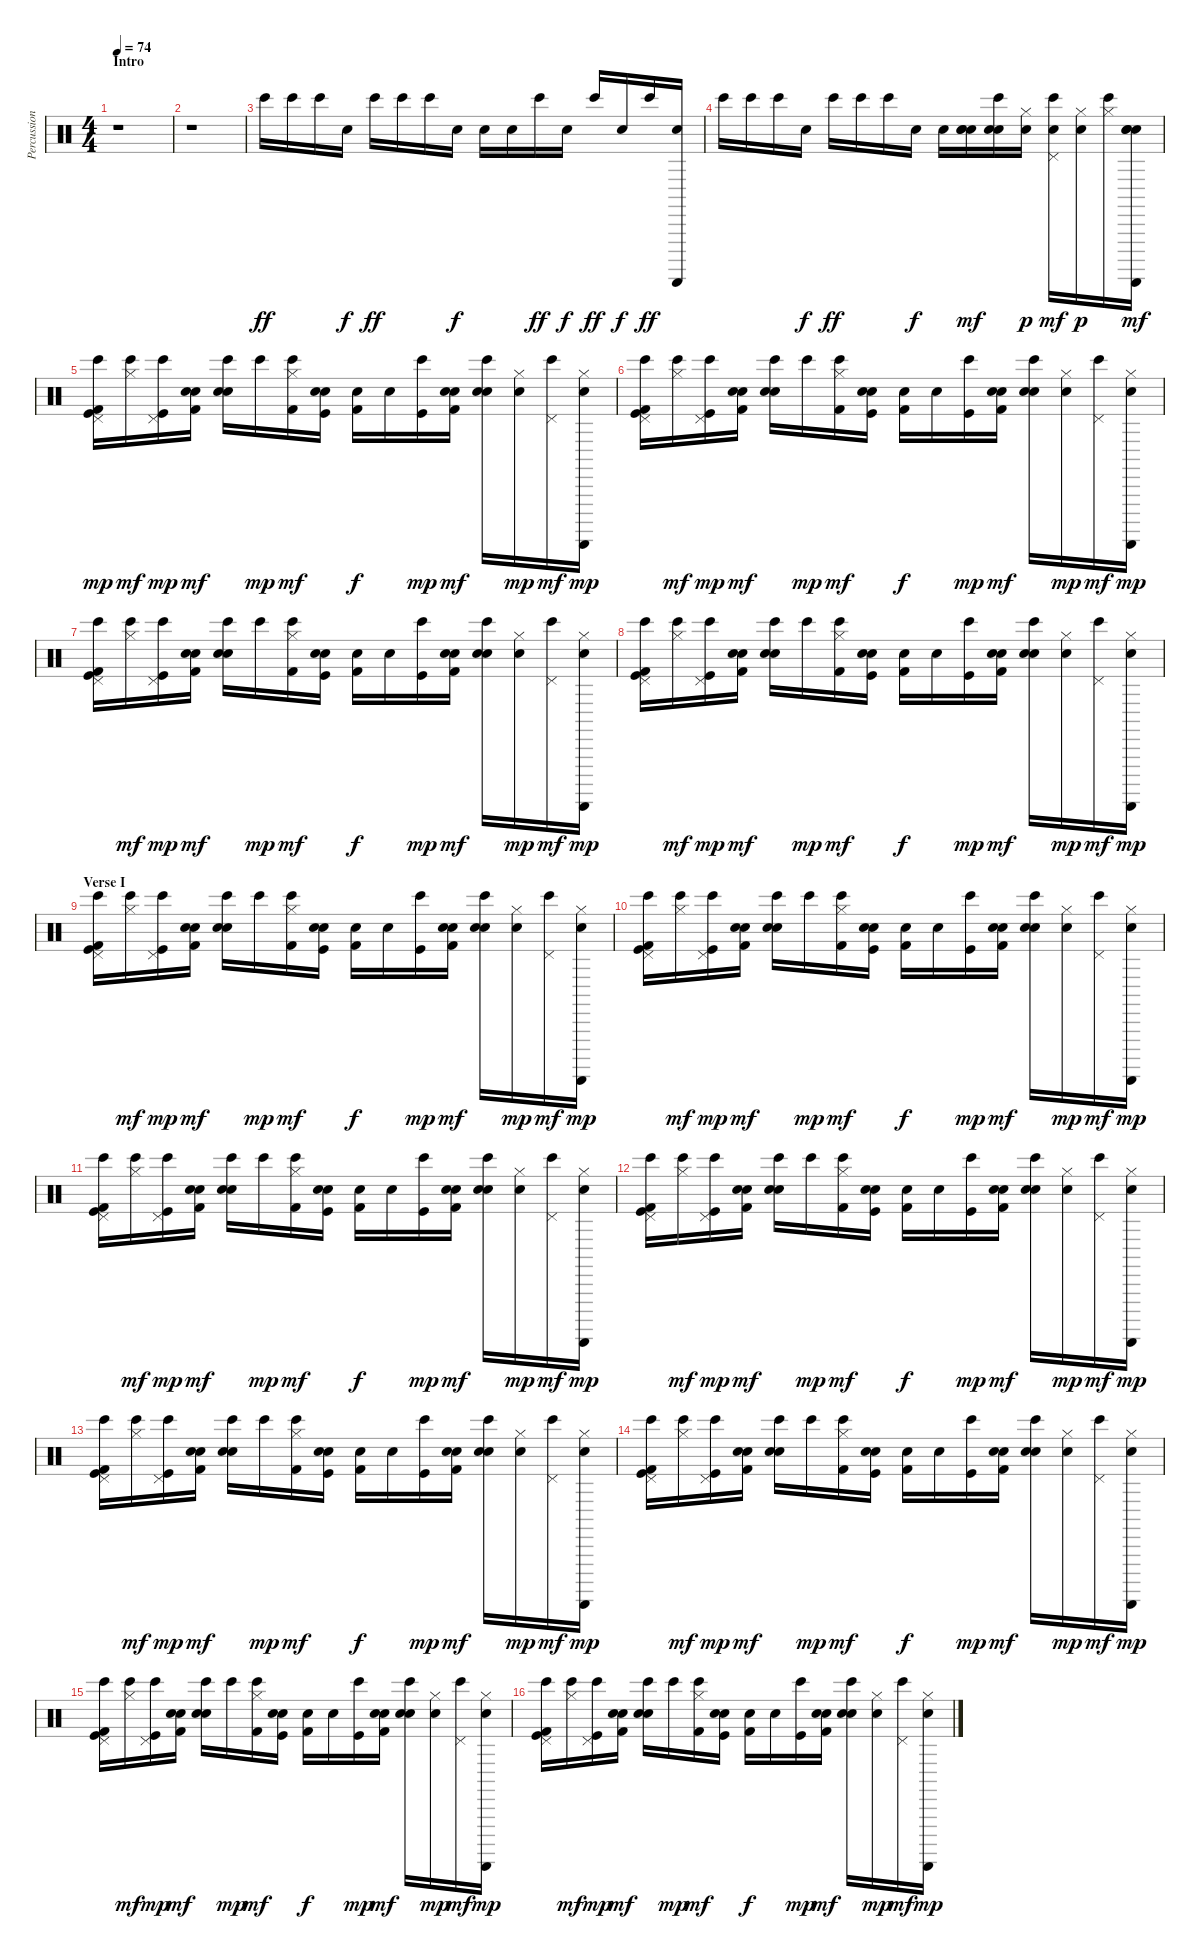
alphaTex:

\track ("Percussion" "Percussion") {instrument percussion}
\staff {score}
\articulation defaults
\ts (4 4)
\section ("" "Intro")
\tempo 74
\clef neutral
\ks c
r.1{dy ff} |
r.1 |
"Bongo High (hit)".16 "Bongo High (hit)".16 "Bongo High (hit)".16 "Snare (hit)".16{dy f} "Bongo High (hit)".16{dy ff} "Bongo High (hit)".16 "Bongo High (hit)".16 "Snare (hit)".16{dy f} "Snare (hit)".16 "Snare (hit)".16 "Bongo High (hit)".16{dy ff} "Snare (hit)".16{dy f} "Bongo High (hit)".16{dy ff} "Snare (hit)".16{dy f} "Bongo High (hit)".16{dy ff} ("Snare (hit)" "Guiro (scrap-return)").16 |
"Bongo High (hit)".16 "Bongo High (hit)".16 "Bongo High (hit)".16 "Snare (hit)".16{dy f} "Bongo High (hit)".16{dy ff} "Bongo High (hit)".16 "Bongo High (hit)".16 "Snare (hit)".16{dy f} "Snare (hit)".16 ("Snare (hit)" "Electric Snare (hit)" "Snare (hit) 2").16{dy mf} ("Bongo High (hit)" "Electric Snare (hit)" "Snare (hit) 2").16 ("Snare (hit)" "Hi-Hat (closed)").16{dy p} ("Bongo High (hit)" "Electric Snare (hit)" "Pedal Hi-Hat (hit)").16{dy mf} ("Snare (hit)" "Hi-Hat (closed)").16{dy p} ("Bongo High (hit)" "Hi-Hat (closed)").16 ("Snare (hit)" "Guiro (scrap-return)" "Electric Snare (hit)" "Snare (hit) 2").16{dy mf} |
("Bongo High (hit)" "Pedal Hi-Hat (hit)" "Kick (hit) 2" "Kick (hit)").16{dy mp} ("Bongo High (hit)" "Hi-Hat (closed)").16{dy mf} ("Bongo High (hit)" "Pedal Hi-Hat (hit)" "Kick (hit)").16{dy mp} ("Snare (hit)" "Electric Snare (hit)" "Kick (hit) 2").16{dy mf} ("Bongo High (hit)" "Electric Snare (hit)" "Snare (hit) 2").16 "Bongo High (hit)".16{dy mp} ("Bongo High (hit)" "Hi-Hat (closed)" "Kick (hit) 2").16{dy mf} ("Snare (hit)" "Electric Snare (hit)" "Kick (hit)").16 ("Snare (hit)" "Kick (hit) 2").16{dy f} "Snare (hit)".16 ("Bongo High (hit)" "Kick (hit)").16{dy mp} ("Snare (hit)" "Electric Snare (hit)" "Kick (hit) 2").16{dy mf} ("Bongo High (hit)" "Electric Snare (hit)" "Snare (hit) 2").16 ("Snare (hit)" "Hi-Hat (closed)").16{dy mp} ("Bongo High (hit)" "Pedal Hi-Hat (hit)").16{dy mf} ("Snare (hit)" "Guiro (scrap-return)" "Hi-Hat (closed)").16{dy mp} |
("Bongo High (hit)" "Pedal Hi-Hat (hit)" "Kick (hit) 2" "Kick (hit)").16 ("Bongo High (hit)" "Hi-Hat (closed)").16{dy mf} ("Bongo High (hit)" "Pedal Hi-Hat (hit)" "Kick (hit)").16{dy mp} ("Snare (hit)" "Electric Snare (hit)" "Kick (hit) 2").16{dy mf} ("Bongo High (hit)" "Electric Snare (hit)" "Snare (hit) 2").16 "Bongo High (hit)".16{dy mp} ("Bongo High (hit)" "Hi-Hat (closed)" "Kick (hit) 2").16{dy mf} ("Snare (hit)" "Electric Snare (hit)" "Kick (hit)").16 ("Snare (hit)" "Kick (hit) 2").16{dy f} "Snare (hit)".16 ("Bongo High (hit)" "Kick (hit)").16{dy mp} ("Snare (hit)" "Electric Snare (hit)" "Kick (hit) 2").16{dy mf} ("Bongo High (hit)" "Electric Snare (hit)" "Snare (hit) 2").16 ("Snare (hit)" "Hi-Hat (closed)").16{dy mp} ("Bongo High (hit)" "Pedal Hi-Hat (hit)").16{dy mf} ("Snare (hit)" "Guiro (scrap-return)" "Hi-Hat (closed)").16{dy mp} |
("Bongo High (hit)" "Pedal Hi-Hat (hit)" "Kick (hit) 2" "Kick (hit)").16 ("Bongo High (hit)" "Hi-Hat (closed)").16{dy mf} ("Bongo High (hit)" "Pedal Hi-Hat (hit)" "Kick (hit)").16{dy mp} ("Snare (hit)" "Electric Snare (hit)" "Kick (hit) 2").16{dy mf} ("Bongo High (hit)" "Electric Snare (hit)" "Snare (hit) 2").16 "Bongo High (hit)".16{dy mp} ("Bongo High (hit)" "Hi-Hat (closed)" "Kick (hit) 2").16{dy mf} ("Snare (hit)" "Electric Snare (hit)" "Kick (hit)").16 ("Snare (hit)" "Kick (hit) 2").16{dy f} "Snare (hit)".16 ("Bongo High (hit)" "Kick (hit)").16{dy mp} ("Snare (hit)" "Electric Snare (hit)" "Kick (hit) 2").16{dy mf} ("Bongo High (hit)" "Electric Snare (hit)" "Snare (hit) 2").16 ("Snare (hit)" "Hi-Hat (closed)").16{dy mp} ("Bongo High (hit)" "Pedal Hi-Hat (hit)").16{dy mf} ("Snare (hit)" "Guiro (scrap-return)" "Hi-Hat (closed)").16{dy mp} |
("Bongo High (hit)" "Pedal Hi-Hat (hit)" "Kick (hit) 2" "Kick (hit)").16 ("Bongo High (hit)" "Hi-Hat (closed)").16{dy mf} ("Bongo High (hit)" "Pedal Hi-Hat (hit)" "Kick (hit)").16{dy mp} ("Snare (hit)" "Electric Snare (hit)" "Kick (hit) 2").16{dy mf} ("Bongo High (hit)" "Electric Snare (hit)" "Snare (hit) 2").16 "Bongo High (hit)".16{dy mp} ("Bongo High (hit)" "Hi-Hat (closed)" "Kick (hit) 2").16{dy mf} ("Snare (hit)" "Electric Snare (hit)" "Kick (hit)").16 ("Snare (hit)" "Kick (hit) 2").16{dy f} "Snare (hit)".16 ("Bongo High (hit)" "Kick (hit)").16{dy mp} ("Snare (hit)" "Electric Snare (hit)" "Kick (hit) 2").16{dy mf} ("Bongo High (hit)" "Electric Snare (hit)" "Snare (hit) 2").16 ("Snare (hit)" "Hi-Hat (closed)").16{dy mp} ("Bongo High (hit)" "Pedal Hi-Hat (hit)").16{dy mf} ("Snare (hit)" "Guiro (scrap-return)" "Hi-Hat (closed)").16{dy mp} |
\section ("" "Verse I")
("Bongo High (hit)" "Pedal Hi-Hat (hit)" "Kick (hit) 2" "Kick (hit)").16 ("Bongo High (hit)" "Hi-Hat (closed)").16{dy mf} ("Bongo High (hit)" "Pedal Hi-Hat (hit)" "Kick (hit)").16{dy mp} ("Snare (hit)" "Electric Snare (hit)" "Kick (hit) 2").16{dy mf} ("Bongo High (hit)" "Electric Snare (hit)" "Snare (hit) 2").16 "Bongo High (hit)".16{dy mp} ("Bongo High (hit)" "Hi-Hat (closed)" "Kick (hit) 2").16{dy mf} ("Snare (hit)" "Electric Snare (hit)" "Kick (hit)").16 ("Snare (hit)" "Kick (hit) 2").16{dy f} "Snare (hit)".16 ("Bongo High (hit)" "Kick (hit)").16{dy mp} ("Snare (hit)" "Electric Snare (hit)" "Kick (hit) 2").16{dy mf} ("Bongo High (hit)" "Electric Snare (hit)" "Snare (hit) 2").16 ("Snare (hit)" "Hi-Hat (closed)").16{dy mp} ("Bongo High (hit)" "Pedal Hi-Hat (hit)").16{dy mf} ("Snare (hit)" "Guiro (scrap-return)" "Hi-Hat (closed)").16{dy mp} |
("Bongo High (hit)" "Pedal Hi-Hat (hit)" "Kick (hit) 2" "Kick (hit)").16 ("Bongo High (hit)" "Hi-Hat (closed)").16{dy mf} ("Bongo High (hit)" "Pedal Hi-Hat (hit)" "Kick (hit)").16{dy mp} ("Snare (hit)" "Electric Snare (hit)" "Kick (hit) 2").16{dy mf} ("Bongo High (hit)" "Electric Snare (hit)" "Snare (hit) 2").16 "Bongo High (hit)".16{dy mp} ("Bongo High (hit)" "Hi-Hat (closed)" "Kick (hit) 2").16{dy mf} ("Snare (hit)" "Electric Snare (hit)" "Kick (hit)").16 ("Snare (hit)" "Kick (hit) 2").16{dy f} "Snare (hit)".16 ("Bongo High (hit)" "Kick (hit)").16{dy mp} ("Snare (hit)" "Electric Snare (hit)" "Kick (hit) 2").16{dy mf} ("Bongo High (hit)" "Electric Snare (hit)" "Snare (hit) 2").16 ("Snare (hit)" "Hi-Hat (closed)").16{dy mp} ("Bongo High (hit)" "Pedal Hi-Hat (hit)").16{dy mf} ("Snare (hit)" "Guiro (scrap-return)" "Hi-Hat (closed)").16{dy mp} |
("Bongo High (hit)" "Pedal Hi-Hat (hit)" "Kick (hit) 2" "Kick (hit)").16 ("Bongo High (hit)" "Hi-Hat (closed)").16{dy mf} ("Bongo High (hit)" "Pedal Hi-Hat (hit)" "Kick (hit)").16{dy mp} ("Snare (hit)" "Electric Snare (hit)" "Kick (hit) 2").16{dy mf} ("Bongo High (hit)" "Electric Snare (hit)" "Snare (hit) 2").16 "Bongo High (hit)".16{dy mp} ("Bongo High (hit)" "Hi-Hat (closed)" "Kick (hit) 2").16{dy mf} ("Snare (hit)" "Electric Snare (hit)" "Kick (hit)").16 ("Snare (hit)" "Kick (hit) 2").16{dy f} "Snare (hit)".16 ("Bongo High (hit)" "Kick (hit)").16{dy mp} ("Snare (hit)" "Electric Snare (hit)" "Kick (hit) 2").16{dy mf} ("Bongo High (hit)" "Electric Snare (hit)" "Snare (hit) 2").16 ("Snare (hit)" "Hi-Hat (closed)").16{dy mp} ("Bongo High (hit)" "Pedal Hi-Hat (hit)").16{dy mf} ("Snare (hit)" "Guiro (scrap-return)" "Hi-Hat (closed)").16{dy mp} |
("Bongo High (hit)" "Pedal Hi-Hat (hit)" "Kick (hit) 2" "Kick (hit)").16 ("Bongo High (hit)" "Hi-Hat (closed)").16{dy mf} ("Bongo High (hit)" "Pedal Hi-Hat (hit)" "Kick (hit)").16{dy mp} ("Snare (hit)" "Electric Snare (hit)" "Kick (hit) 2").16{dy mf} ("Bongo High (hit)" "Electric Snare (hit)" "Snare (hit) 2").16 "Bongo High (hit)".16{dy mp} ("Bongo High (hit)" "Hi-Hat (closed)" "Kick (hit) 2").16{dy mf} ("Snare (hit)" "Electric Snare (hit)" "Kick (hit)").16 ("Snare (hit)" "Kick (hit) 2").16{dy f} "Snare (hit)".16 ("Bongo High (hit)" "Kick (hit)").16{dy mp} ("Snare (hit)" "Electric Snare (hit)" "Kick (hit) 2").16{dy mf} ("Bongo High (hit)" "Electric Snare (hit)" "Snare (hit) 2").16 ("Snare (hit)" "Hi-Hat (closed)").16{dy mp} ("Bongo High (hit)" "Pedal Hi-Hat (hit)").16{dy mf} ("Snare (hit)" "Guiro (scrap-return)" "Hi-Hat (closed)").16{dy mp} |
("Bongo High (hit)" "Pedal Hi-Hat (hit)" "Kick (hit) 2" "Kick (hit)").16 ("Bongo High (hit)" "Hi-Hat (closed)").16{dy mf} ("Bongo High (hit)" "Pedal Hi-Hat (hit)" "Kick (hit)").16{dy mp} ("Snare (hit)" "Electric Snare (hit)" "Kick (hit) 2").16{dy mf} ("Bongo High (hit)" "Electric Snare (hit)" "Snare (hit) 2").16 "Bongo High (hit)".16{dy mp} ("Bongo High (hit)" "Hi-Hat (closed)" "Kick (hit) 2").16{dy mf} ("Snare (hit)" "Electric Snare (hit)" "Kick (hit)").16 ("Snare (hit)" "Kick (hit) 2").16{dy f} "Snare (hit)".16 ("Bongo High (hit)" "Kick (hit)").16{dy mp} ("Snare (hit)" "Electric Snare (hit)" "Kick (hit) 2").16{dy mf} ("Bongo High (hit)" "Electric Snare (hit)" "Snare (hit) 2").16 ("Snare (hit)" "Hi-Hat (closed)").16{dy mp} ("Bongo High (hit)" "Pedal Hi-Hat (hit)").16{dy mf} ("Snare (hit)" "Guiro (scrap-return)" "Hi-Hat (closed)").16{dy mp} |
("Bongo High (hit)" "Pedal Hi-Hat (hit)" "Kick (hit) 2" "Kick (hit)").16 ("Bongo High (hit)" "Hi-Hat (closed)").16{dy mf} ("Bongo High (hit)" "Pedal Hi-Hat (hit)" "Kick (hit)").16{dy mp} ("Snare (hit)" "Electric Snare (hit)" "Kick (hit) 2").16{dy mf} ("Bongo High (hit)" "Electric Snare (hit)" "Snare (hit) 2").16 "Bongo High (hit)".16{dy mp} ("Bongo High (hit)" "Hi-Hat (closed)" "Kick (hit) 2").16{dy mf} ("Snare (hit)" "Electric Snare (hit)" "Kick (hit)").16 ("Snare (hit)" "Kick (hit) 2").16{dy f} "Snare (hit)".16 ("Bongo High (hit)" "Kick (hit)").16{dy mp} ("Snare (hit)" "Electric Snare (hit)" "Kick (hit) 2").16{dy mf} ("Bongo High (hit)" "Electric Snare (hit)" "Snare (hit) 2").16 ("Snare (hit)" "Hi-Hat (closed)").16{dy mp} ("Bongo High (hit)" "Pedal Hi-Hat (hit)").16{dy mf} ("Snare (hit)" "Guiro (scrap-return)" "Hi-Hat (closed)").16{dy mp} |
("Bongo High (hit)" "Pedal Hi-Hat (hit)" "Kick (hit) 2" "Kick (hit)").16 ("Bongo High (hit)" "Hi-Hat (closed)").16{dy mf} ("Bongo High (hit)" "Pedal Hi-Hat (hit)" "Kick (hit)").16{dy mp} ("Snare (hit)" "Electric Snare (hit)" "Kick (hit) 2").16{dy mf} ("Bongo High (hit)" "Electric Snare (hit)" "Snare (hit) 2").16 "Bongo High (hit)".16{dy mp} ("Bongo High (hit)" "Hi-Hat (closed)" "Kick (hit) 2").16{dy mf} ("Snare (hit)" "Electric Snare (hit)" "Kick (hit)").16 ("Snare (hit)" "Kick (hit) 2").16{dy f} "Snare (hit)".16 ("Bongo High (hit)" "Kick (hit)").16{dy mp} ("Snare (hit)" "Electric Snare (hit)" "Kick (hit) 2").16{dy mf} ("Bongo High (hit)" "Electric Snare (hit)" "Snare (hit) 2").16 ("Snare (hit)" "Hi-Hat (closed)").16{dy mp} ("Bongo High (hit)" "Pedal Hi-Hat (hit)").16{dy mf} ("Snare (hit)" "Guiro (scrap-return)" "Hi-Hat (closed)").16{dy mp} |
("Bongo High (hit)" "Pedal Hi-Hat (hit)" "Kick (hit) 2" "Kick (hit)").16 ("Bongo High (hit)" "Hi-Hat (closed)").16{dy mf} ("Bongo High (hit)" "Pedal Hi-Hat (hit)" "Kick (hit)").16{dy mp} ("Snare (hit)" "Electric Snare (hit)" "Kick (hit) 2").16{dy mf} ("Bongo High (hit)" "Electric Snare (hit)" "Snare (hit) 2").16 "Bongo High (hit)".16{dy mp} ("Bongo High (hit)" "Hi-Hat (closed)" "Kick (hit) 2").16{dy mf} ("Snare (hit)" "Electric Snare (hit)" "Kick (hit)").16 ("Snare (hit)" "Kick (hit) 2").16{dy f} "Snare (hit)".16 ("Bongo High (hit)" "Kick (hit)").16{dy mp} ("Snare (hit)" "Electric Snare (hit)" "Kick (hit) 2").16{dy mf} ("Bongo High (hit)" "Electric Snare (hit)" "Snare (hit) 2").16 ("Snare (hit)" "Hi-Hat (closed)").16{dy mp} ("Bongo High (hit)" "Pedal Hi-Hat (hit)").16{dy mf} ("Snare (hit)" "Guiro (scrap-return)" "Hi-Hat (closed)").16{dy mp}
